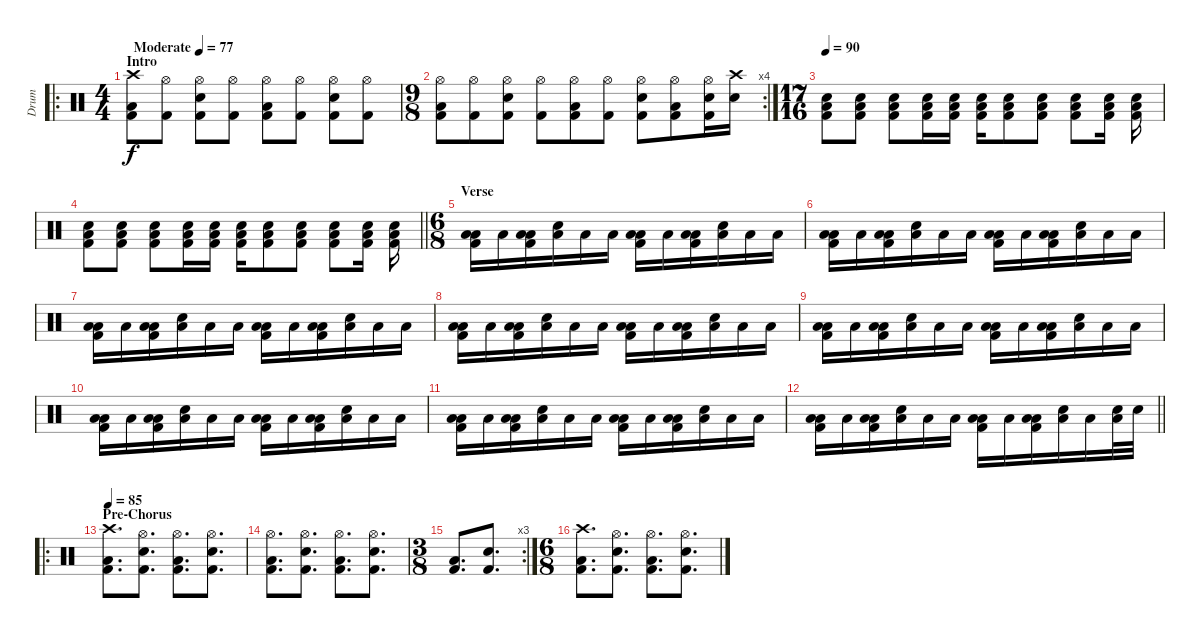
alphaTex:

\track ("Drum" "Drum") {instrument percussion}
\staff {score}
\articulation defaults
\ro
\ts (4 4)
\section ("" "Intro")
\tempo (77 "Moderate")
\clef neutral
\ks c
("Crash high (hit)" "Low Floor Tom (hit)" "Kick (hit) 2").8{dy f} ("Hi-Hat (open)" "Kick (hit) 2").8 ("Hi-Hat (open)" "Electric Snare (hit)" "Kick (hit) 2").8 ("Hi-Hat (open)" "Kick (hit) 2").8 ("Hi-Hat (open)" "Low Floor Tom (hit)" "Kick (hit) 2").8 ("Hi-Hat (open)" "Kick (hit) 2").8 ("Hi-Hat (open)" "Electric Snare (hit)" "Kick (hit) 2").8 ("Hi-Hat (open)" "Kick (hit) 2").8 |
\rc 4
\ts (9 8)
("Hi-Hat (open)" "Low Floor Tom (hit)" "Kick (hit) 2").8 ("Hi-Hat (open)" "Kick (hit) 2").8 ("Hi-Hat (open)" "Electric Snare (hit)" "Kick (hit) 2").8 ("Hi-Hat (open)" "Kick (hit) 2").8 ("Hi-Hat (open)" "Low Floor Tom (hit)" "Kick (hit) 2").8 ("Hi-Hat (open)" "Kick (hit) 2").8 ("Hi-Hat (open)" "Electric Snare (hit)" "Kick (hit) 2").8 ("Hi-Hat (open)" "Low Floor Tom (hit)" "Kick (hit) 2").8 ("Hi-Hat (open)" "Electric Snare (hit)" "Kick (hit) 2").16 ("Crash high (hit)" "Electric Snare (hit)").16 |
\ts (17 16)
\tempo 89
\tempo 90
("Low Floor Tom (hit)" "Electric Snare (hit)" "Kick (hit) 2").8 ("Low Floor Tom (hit)" "Electric Snare (hit)" "Kick (hit) 2").8 ("Low Floor Tom (hit)" "Electric Snare (hit)" "Kick (hit) 2").8 ("Low Floor Tom (hit)" "Electric Snare (hit)" "Kick (hit) 2").16 ("Low Floor Tom (hit)" "Electric Snare (hit)" "Kick (hit) 2").16 ("Low Floor Tom (hit)" "Electric Snare (hit)" "Kick (hit) 2").16 ("Low Floor Tom (hit)" "Electric Snare (hit)" "Kick (hit) 2").8 ("Low Floor Tom (hit)" "Electric Snare (hit)" "Kick (hit) 2").8 ("Low Floor Tom (hit)" "Electric Snare (hit)" "Kick (hit) 2").8 ("Low Floor Tom (hit)" "Electric Snare (hit)" "Kick (hit) 2").16 ("Low Floor Tom (hit)" "Electric Snare (hit)" "Kick (hit) 2").16 |
\barLineRight lightlight
("Low Floor Tom (hit)" "Electric Snare (hit)" "Kick (hit) 2").8 ("Low Floor Tom (hit)" "Electric Snare (hit)" "Kick (hit) 2").8 ("Low Floor Tom (hit)" "Electric Snare (hit)" "Kick (hit) 2").8 ("Low Floor Tom (hit)" "Electric Snare (hit)" "Kick (hit) 2").16 ("Low Floor Tom (hit)" "Electric Snare (hit)" "Kick (hit) 2").16 ("Low Floor Tom (hit)" "Electric Snare (hit)" "Kick (hit) 2").16 ("Low Floor Tom (hit)" "Electric Snare (hit)" "Kick (hit) 2").8 ("Low Floor Tom (hit)" "Electric Snare (hit)" "Kick (hit) 2").8 ("Low Floor Tom (hit)" "Electric Snare (hit)" "Kick (hit) 2").8 ("Low Floor Tom (hit)" "Electric Snare (hit)" "Kick (hit) 2").16 ("Low Floor Tom (hit)" "Electric Snare (hit)" "Kick (hit) 2").16 |
\ts (6 8)
\section ("" "Verse")
("Low Floor Tom (hit)" "Low Tom (hit)" "Kick (hit) 2").16 "Low Tom (hit)".16 ("Low Floor Tom (hit)" "Low Tom (hit)" "Kick (hit) 2").16 ("Low Tom (hit)" "Electric Snare (hit)").16 "Low Tom (hit)".16 "Low Tom (hit)".16 ("Low Floor Tom (hit)" "Low Tom (hit)" "Kick (hit) 2").16 "Low Tom (hit)".16 ("Low Floor Tom (hit)" "Low Tom (hit)" "Kick (hit) 2").16 ("Low Tom (hit)" "Electric Snare (hit)").16 "Low Tom (hit)".16 "Low Tom (hit)".16 |
("Low Floor Tom (hit)" "Low Tom (hit)" "Kick (hit) 2").16 "Low Tom (hit)".16 ("Low Floor Tom (hit)" "Low Tom (hit)" "Kick (hit) 2").16 ("Low Tom (hit)" "Electric Snare (hit)").16 "Low Tom (hit)".16 "Low Tom (hit)".16 ("Low Floor Tom (hit)" "Low Tom (hit)" "Kick (hit) 2").16 "Low Tom (hit)".16 ("Low Floor Tom (hit)" "Low Tom (hit)" "Kick (hit) 2").16 ("Low Tom (hit)" "Electric Snare (hit)").16 "Low Tom (hit)".16 "Low Tom (hit)".16 |
("Low Floor Tom (hit)" "Low Tom (hit)" "Kick (hit) 2").16 "Low Tom (hit)".16 ("Low Floor Tom (hit)" "Low Tom (hit)" "Kick (hit) 2").16 ("Low Tom (hit)" "Electric Snare (hit)").16 "Low Tom (hit)".16 "Low Tom (hit)".16 ("Low Floor Tom (hit)" "Low Tom (hit)" "Kick (hit) 2").16 "Low Tom (hit)".16 ("Low Floor Tom (hit)" "Low Tom (hit)" "Kick (hit) 2").16 ("Low Tom (hit)" "Electric Snare (hit)").16 "Low Tom (hit)".16 "Low Tom (hit)".16 |
("Low Floor Tom (hit)" "Low Tom (hit)" "Kick (hit) 2").16 "Low Tom (hit)".16 ("Low Floor Tom (hit)" "Low Tom (hit)" "Kick (hit) 2").16 ("Low Tom (hit)" "Electric Snare (hit)").16 "Low Tom (hit)".16 "Low Tom (hit)".16 ("Low Floor Tom (hit)" "Low Tom (hit)" "Kick (hit) 2").16 "Low Tom (hit)".16 ("Low Floor Tom (hit)" "Low Tom (hit)" "Kick (hit) 2").16 ("Low Tom (hit)" "Electric Snare (hit)").16 "Low Tom (hit)".16 "Low Tom (hit)".16 |
("Low Floor Tom (hit)" "Low Tom (hit)" "Kick (hit) 2").16 "Low Tom (hit)".16 ("Low Floor Tom (hit)" "Low Tom (hit)" "Kick (hit) 2").16 ("Low Tom (hit)" "Electric Snare (hit)").16 "Low Tom (hit)".16 "Low Tom (hit)".16 ("Low Floor Tom (hit)" "Low Tom (hit)" "Kick (hit) 2").16 "Low Tom (hit)".16 ("Low Floor Tom (hit)" "Low Tom (hit)" "Kick (hit) 2").16 ("Low Tom (hit)" "Electric Snare (hit)").16 "Low Tom (hit)".16 "Low Tom (hit)".16 |
("Low Floor Tom (hit)" "Low Tom (hit)" "Kick (hit) 2").16 "Low Tom (hit)".16 ("Low Floor Tom (hit)" "Low Tom (hit)" "Kick (hit) 2").16 ("Low Tom (hit)" "Electric Snare (hit)").16 "Low Tom (hit)".16 "Low Tom (hit)".16 ("Low Floor Tom (hit)" "Low Tom (hit)" "Kick (hit) 2").16 "Low Tom (hit)".16 ("Low Floor Tom (hit)" "Low Tom (hit)" "Kick (hit) 2").16 ("Low Tom (hit)" "Electric Snare (hit)").16 "Low Tom (hit)".16 "Low Tom (hit)".16 |
("Low Floor Tom (hit)" "Low Tom (hit)" "Kick (hit) 2").16 "Low Tom (hit)".16 ("Low Floor Tom (hit)" "Low Tom (hit)" "Kick (hit) 2").16 ("Low Tom (hit)" "Electric Snare (hit)").16 "Low Tom (hit)".16 "Low Tom (hit)".16 ("Low Floor Tom (hit)" "Low Tom (hit)" "Kick (hit) 2").16 "Low Tom (hit)".16 ("Low Floor Tom (hit)" "Low Tom (hit)" "Kick (hit) 2").16 ("Low Tom (hit)" "Electric Snare (hit)").16 "Low Tom (hit)".16 "Low Tom (hit)".16 |
\barLineRight lightlight
("Low Floor Tom (hit)" "Low Tom (hit)" "Kick (hit) 2").16 "Low Tom (hit)".16 ("Low Floor Tom (hit)" "Low Tom (hit)" "Kick (hit) 2").16 ("Low Tom (hit)" "Electric Snare (hit)").16 "Low Tom (hit)".16 "Low Tom (hit)".16 ("Low Floor Tom (hit)" "Low Tom (hit)" "Kick (hit) 2").16 "Low Tom (hit)".16 ("Low Floor Tom (hit)" "Low Tom (hit)" "Kick (hit) 2").16 ("Low Tom (hit)" "Electric Snare (hit)").16 "Low Tom (hit)".16 ("Low Tom (hit)" "Electric Snare (hit)").32 "Electric Snare (hit)".32 |
\ro
\section ("" "Pre-Chorus")
\tempo 85
("Crash high (hit)" "Low Floor Tom (hit)" "Kick (hit) 2").8{d} ("Hi-Hat (open)" "Electric Snare (hit)" "Kick (hit) 2").8{d} ("Hi-Hat (open)" "Low Floor Tom (hit)" "Kick (hit) 2").8{d} ("Hi-Hat (open)" "Electric Snare (hit)" "Kick (hit) 2").8{d} |
("Hi-Hat (open)" "Low Floor Tom (hit)" "Kick (hit) 2").8{d} ("Hi-Hat (open)" "Electric Snare (hit)" "Kick (hit) 2").8{d} ("Hi-Hat (open)" "Low Floor Tom (hit)" "Kick (hit) 2").8{d} ("Hi-Hat (open)" "Electric Snare (hit)" "Kick (hit) 2").8{d} |
\rc 3
\ts (3 8)
("Low Floor Tom (hit)" "Kick (hit) 2").8{d} ("Electric Snare (hit)" "Kick (hit) 2").8{d} |
\ts (6 8)
("Crash high (hit)" "Low Floor Tom (hit)" "Kick (hit) 2").8{d} ("Hi-Hat (open)" "Electric Snare (hit)" "Kick (hit) 2").8{d} ("Hi-Hat (open)" "Low Floor Tom (hit)" "Kick (hit) 2").8{d} ("Hi-Hat (open)" "Electric Snare (hit)" "Kick (hit) 2").8{d}
